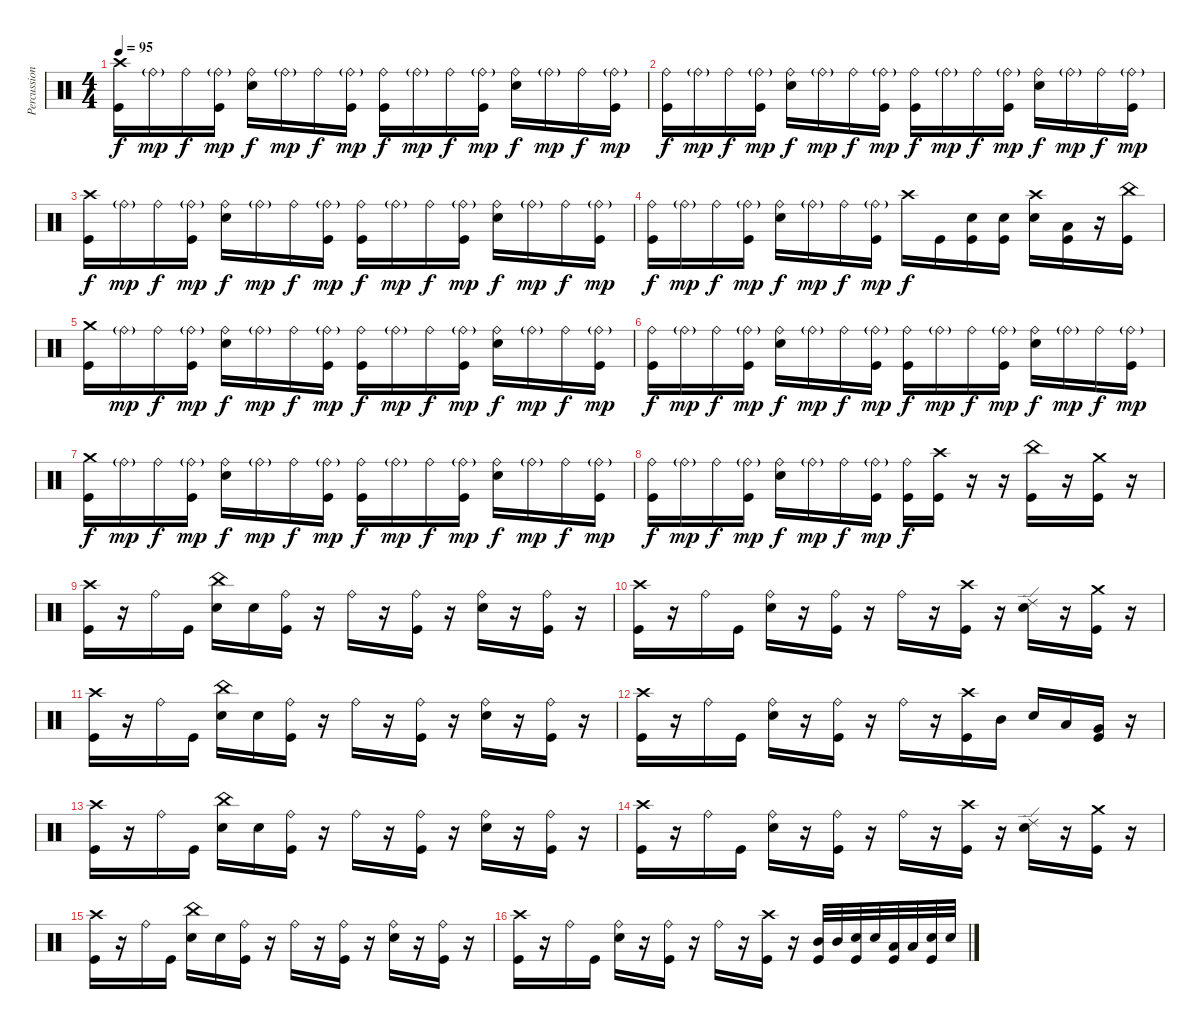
\track ("Percussion" "Percussion") {instrument percussion}
\staff {score}
\articulation defaults
\ts (4 4)
\tempo 95
\clef neutral
\ks c
("Crash high (hit)" "Kick (hit)").16{dy f} "Ride (bell)"{g}.16{dy mp} "Ride (bell)".16{dy f} ("Ride (bell)"{g} "Kick (hit)").16{dy mp} ("Ride (bell)" "Snare (hit) 2").16{dy f} "Ride (bell)"{g}.16{dy mp} "Ride (bell)".16{dy f} ("Ride (bell)"{g} "Kick (hit)").16{dy mp} ("Ride (bell)" "Kick (hit)").16{dy f} "Ride (bell)"{g}.16{dy mp} "Ride (bell)".16{dy f} ("Ride (bell)"{g} "Kick (hit)").16{dy mp} ("Ride (bell)" "Snare (hit) 2").16{dy f} "Ride (bell)"{g}.16{dy mp} "Ride (bell)".16{dy f} ("Ride (bell)"{g} "Kick (hit)").16{dy mp} |
("Ride (bell)" "Kick (hit)").16{dy f} "Ride (bell)"{g}.16{dy mp} "Ride (bell)".16{dy f} ("Ride (bell)"{g} "Kick (hit)").16{dy mp} ("Ride (bell)" "Snare (hit) 2").16{dy f} "Ride (bell)"{g}.16{dy mp} "Ride (bell)".16{dy f} ("Ride (bell)"{g} "Kick (hit)").16{dy mp} ("Ride (bell)" "Kick (hit)").16{dy f} "Ride (bell)"{g}.16{dy mp} "Ride (bell)".16{dy f} ("Ride (bell)"{g} "Kick (hit)").16{dy mp} ("Ride (bell)" "Snare (hit) 2").16{dy f} "Ride (bell)"{g}.16{dy mp} "Ride (bell)".16{dy f} ("Ride (bell)"{g} "Kick (hit)").16{dy mp} |
("Crash high (hit)" "Kick (hit)").16{dy f} "Ride (bell)"{g}.16{dy mp} "Ride (bell)".16{dy f} ("Ride (bell)"{g} "Kick (hit)").16{dy mp} ("Ride (bell)" "Snare (hit) 2").16{dy f} "Ride (bell)"{g}.16{dy mp} "Ride (bell)".16{dy f} ("Ride (bell)"{g} "Kick (hit)").16{dy mp} ("Ride (bell)" "Kick (hit)").16{dy f} "Ride (bell)"{g}.16{dy mp} "Ride (bell)".16{dy f} ("Ride (bell)"{g} "Kick (hit)").16{dy mp} ("Ride (bell)" "Snare (hit) 2").16{dy f} "Ride (bell)"{g}.16{dy mp} "Ride (bell)".16{dy f} ("Ride (bell)"{g} "Kick (hit)").16{dy mp} |
("Ride (bell)" "Kick (hit)").16{dy f} "Ride (bell)"{g}.16{dy mp} "Ride (bell)".16{dy f} ("Ride (bell)"{g} "Kick (hit)").16{dy mp} ("Ride (bell)" "Snare (hit) 2").16{dy f} "Ride (bell)"{g}.16{dy mp} "Ride (bell)".16{dy f} ("Ride (bell)"{g} "Kick (hit)").16{dy mp} "Crash high (hit)".16{dy f} "Kick (hit)".16 ("Snare (hit) 2" "Kick (hit)").16 ("Snare (hit) 2" "Kick (hit)").16 ("Crash high (hit)" "Snare (hit) 2").16 ("Low Tom (hit)" "Kick (hit)").16 r.16 ("China (hit)" "Kick (hit)").16 |
("Crash medium (hit)" "Kick (hit)").16 "Ride (bell)"{g}.16{dy mp} "Ride (bell)".16{dy f} ("Ride (bell)"{g} "Kick (hit)").16{dy mp} ("Ride (bell)" "Snare (hit) 2").16{dy f} "Ride (bell)"{g}.16{dy mp} "Ride (bell)".16{dy f} ("Ride (bell)"{g} "Kick (hit)").16{dy mp} ("Ride (bell)" "Kick (hit)").16{dy f} "Ride (bell)"{g}.16{dy mp} "Ride (bell)".16{dy f} ("Ride (bell)"{g} "Kick (hit)").16{dy mp} ("Ride (bell)" "Snare (hit) 2").16{dy f} "Ride (bell)"{g}.16{dy mp} "Ride (bell)".16{dy f} ("Ride (bell)"{g} "Kick (hit)").16{dy mp} |
("Ride (bell)" "Kick (hit)").16{dy f} "Ride (bell)"{g}.16{dy mp} "Ride (bell)".16{dy f} ("Ride (bell)"{g} "Kick (hit)").16{dy mp} ("Ride (bell)" "Snare (hit) 2").16{dy f} "Ride (bell)"{g}.16{dy mp} "Ride (bell)".16{dy f} ("Ride (bell)"{g} "Kick (hit)").16{dy mp} ("Ride (bell)" "Kick (hit)").16{dy f} "Ride (bell)"{g}.16{dy mp} "Ride (bell)".16{dy f} ("Ride (bell)"{g} "Kick (hit)").16{dy mp} ("Ride (bell)" "Snare (hit) 2").16{dy f} "Ride (bell)"{g}.16{dy mp} "Ride (bell)".16{dy f} ("Ride (bell)"{g} "Kick (hit)").16{dy mp} |
("Crash medium (hit)" "Kick (hit)").16{dy f} "Ride (bell)"{g}.16{dy mp} "Ride (bell)".16{dy f} ("Ride (bell)"{g} "Kick (hit)").16{dy mp} ("Ride (bell)" "Snare (hit) 2").16{dy f} "Ride (bell)"{g}.16{dy mp} "Ride (bell)".16{dy f} ("Ride (bell)"{g} "Kick (hit)").16{dy mp} ("Ride (bell)" "Kick (hit)").16{dy f} "Ride (bell)"{g}.16{dy mp} "Ride (bell)".16{dy f} ("Ride (bell)"{g} "Kick (hit)").16{dy mp} ("Ride (bell)" "Snare (hit) 2").16{dy f} "Ride (bell)"{g}.16{dy mp} "Ride (bell)".16{dy f} ("Ride (bell)"{g} "Kick (hit)").16{dy mp} |
("Ride (bell)" "Kick (hit)").16{dy f} "Ride (bell)"{g}.16{dy mp} "Ride (bell)".16{dy f} ("Ride (bell)"{g} "Kick (hit)").16{dy mp} ("Ride (bell)" "Snare (hit) 2").16{dy f} "Ride (bell)"{g}.16{dy mp} "Ride (bell)".16{dy f} ("Ride (bell)"{g} "Kick (hit)").16{dy mp} ("Ride (bell)" "Kick (hit)").16{dy f} ("Crash high (hit)" "Kick (hit)").16 r.16 r.16 ("China (hit)" "Kick (hit)").16 r.16 ("Crash medium (hit)" "Kick (hit)").16 r.16 |
("Crash high (hit)" "Kick (hit)").16 r.16 "Ride (bell)".16 "Kick (hit)".16 ("China (hit)" "Snare (hit) 2").16 "Snare (hit) 2".16 ("Ride (bell)" "Kick (hit)").16 r.16 "Ride (bell)".16 r.16 ("Ride (bell)" "Kick (hit)").16 r.16 ("Ride (bell)" "Snare (hit) 2").16 r.16 ("Ride (bell)" "Kick (hit)").16 r.16 |
("Crash high (hit)" "Kick (hit)").16 r.16 "Ride (bell)".16 "Kick (hit)".16 ("Ride (bell)" "Snare (hit) 2").16 r.16 ("Ride (bell)" "Kick (hit)").16 r.16 "Ride (bell)".16 r.16 ("Crash high (hit)" "Kick (hit)").16 r.16 ("Ride (edge) 2" "Snare (hit) 2").16 r.16 ("Crash medium (hit)" "Kick (hit)").16 r.16 |
("Crash high (hit)" "Kick (hit)").16 r.16 "Ride (bell)".16 "Kick (hit)".16 ("China (hit)" "Snare (hit) 2").16 "Snare (hit) 2".16 ("Ride (bell)" "Kick (hit)").16 r.16 "Ride (bell)".16 r.16 ("Ride (bell)" "Kick (hit)").16 r.16 ("Ride (bell)" "Snare (hit) 2").16 r.16 ("Ride (bell)" "Kick (hit)").16 r.16 |
("Crash high (hit)" "Kick (hit)").16 r.16 "Ride (bell)".16 "Kick (hit)".16 ("Ride (bell)" "Snare (hit) 2").16 r.16 ("Ride (bell)" "Kick (hit)").16 r.16 "Ride (bell)".16 r.16 ("Crash high (hit)" "Kick (hit)").16 "Mid Tom (hit)".16 "Snare (hit) 2".16 "Low Tom (hit)".16 ("Very Low Tom (hit)" "Kick (hit)").16 r.16 |
("Crash high (hit)" "Kick (hit)").16 r.16 "Ride (bell)".16 "Kick (hit)".16 ("China (hit)" "Snare (hit) 2").16 "Snare (hit) 2".16 ("Ride (bell)" "Kick (hit)").16 r.16 "Ride (bell)".16 r.16 ("Ride (bell)" "Kick (hit)").16 r.16 ("Ride (bell)" "Snare (hit) 2").16 r.16 ("Ride (bell)" "Kick (hit)").16 r.16 |
("Crash high (hit)" "Kick (hit)").16 r.16 "Ride (bell)".16 "Kick (hit)".16 ("Ride (bell)" "Snare (hit) 2").16 r.16 ("Ride (bell)" "Kick (hit)").16 r.16 "Ride (bell)".16 r.16 ("Crash high (hit)" "Kick (hit)").16 r.16 ("Ride (edge) 2" "Snare (hit) 2").16 r.16 ("Crash medium (hit)" "Kick (hit)").16 r.16 |
("Crash high (hit)" "Kick (hit)").16 r.16 "Ride (bell)".16 "Kick (hit)".16 ("China (hit)" "Snare (hit) 2").16 "Snare (hit) 2".16 ("Ride (bell)" "Kick (hit)").16 r.16 "Ride (bell)".16 r.16 ("Ride (bell)" "Kick (hit)").16 r.16 ("Ride (bell)" "Snare (hit) 2").16 r.16 ("Ride (bell)" "Kick (hit)").16 r.16 |
("Crash high (hit)" "Kick (hit)").16 r.16 "Ride (bell)".16 "Kick (hit)".16 ("Ride (bell)" "Snare (hit) 2").16 r.16 ("Ride (bell)" "Kick (hit)").16 r.16 "Ride (bell)".16 r.16 ("Crash high (hit)" "Kick (hit)").16 r.16 ("Mid Tom (hit)" "Kick (hit)").32 "Mid Tom (hit)".32 ("Snare (hit) 2" "Kick (hit)").32 "Snare (hit) 2".32 ("Low Tom (hit)" "Kick (hit)").32 "Low Tom (hit)".32 ("Snare (hit) 2" "Kick (hit)").32 "Snare (hit) 2".32
